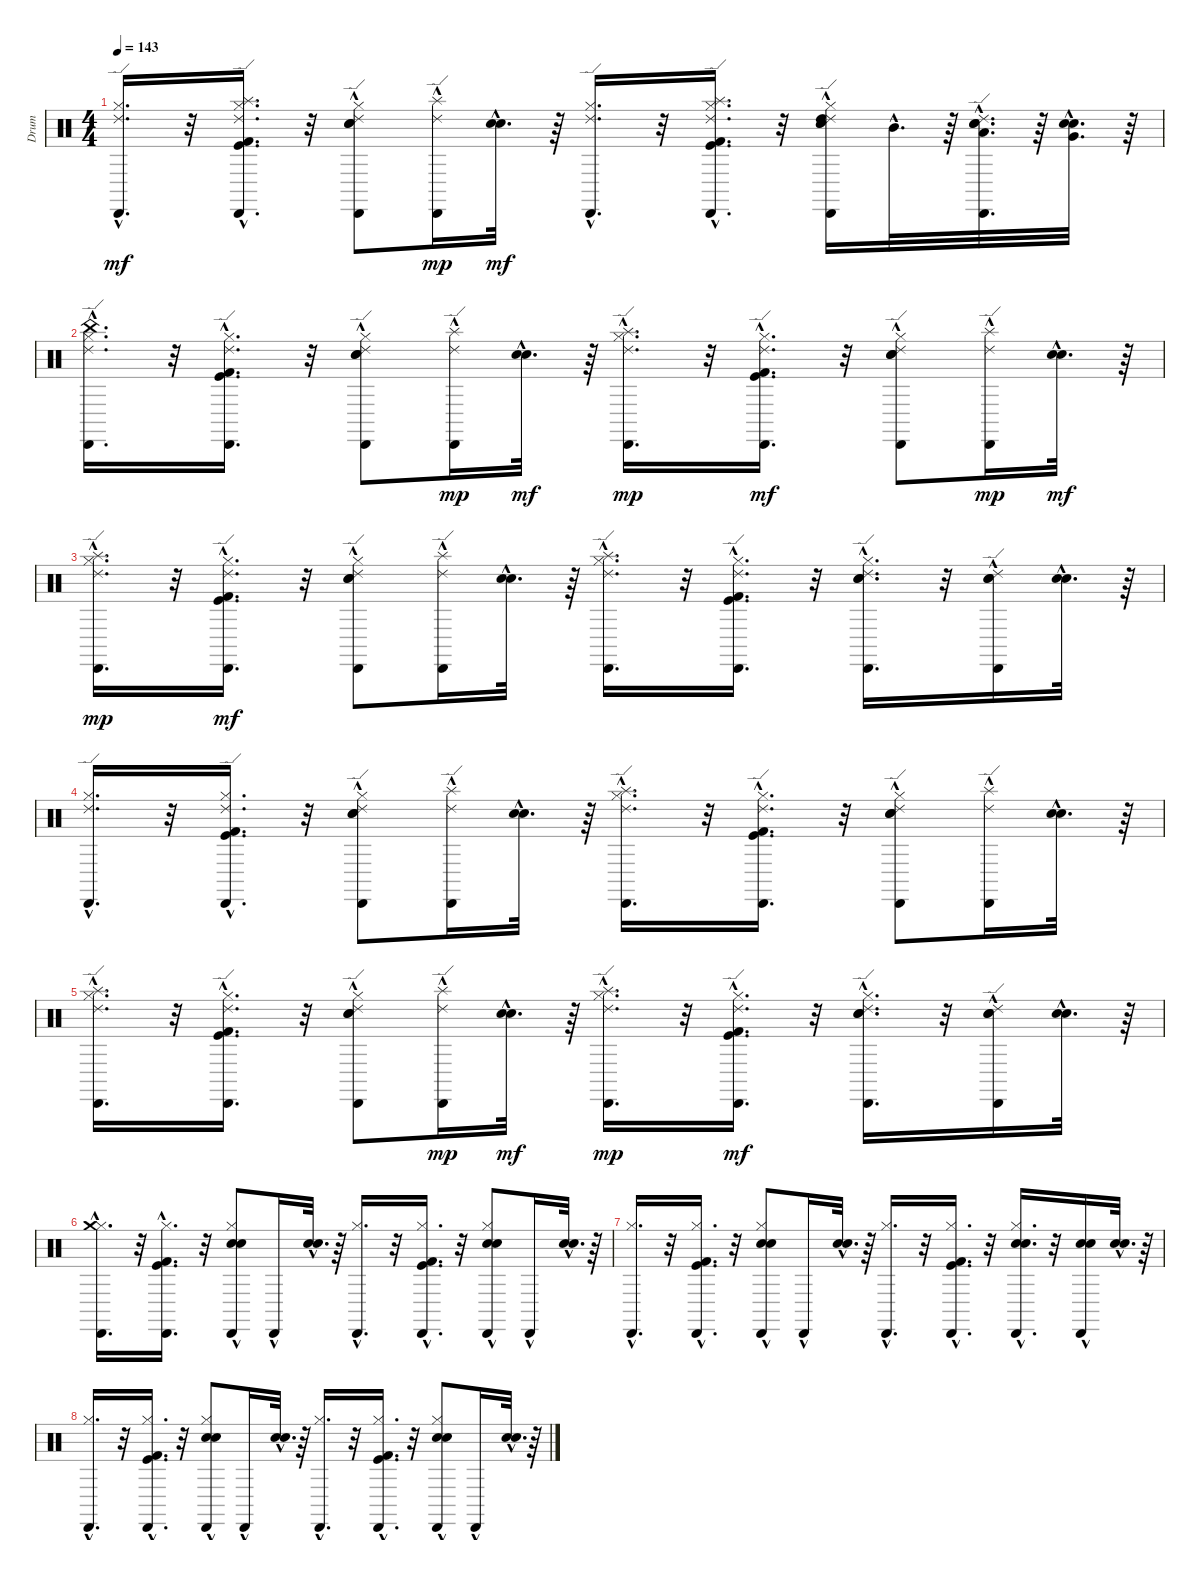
\track ("Drum" "Drum") {instrument percussion}
\staff {score}
\articulation defaults
\ts (4 4)
\tempo 143
\clef neutral
\ks c
("Ride (edge) 2"{hac} "Hi-Hat (closed)"{hac} "Cabasa (hit)"{hac}).16{d dy mf} r.32 ("Ride (edge) 2"{hac} "Kick (hit) 2"{hac} "Kick (hit)"{hac} "Cabasa (hit)"{hac} "Splash (hit)"{hac} "Hi-Hat (closed)"{hac}).16{d} r.32 ("Ride (edge) 2"{hac} "Cabasa (hit)"{hac} "Electric Snare (hit)" "Hi-Hat (closed)" "Snare (hit) 2").8 ("Ride (edge) 2"{hac} "Cabasa (hit)"{hac} "Splash (hit)"{hac}).16{dy mp} ("Snare (hit) 2"{hac} "Electric Snare (hit)"{hac}).32{d dy mf} r.64 ("Ride (edge) 2"{hac} "Cabasa (hit)"{hac} "Hi-Hat (closed)"{hac}).16{d} r.32 ("Ride (edge) 2"{hac} "Kick (hit) 2"{hac} "Kick (hit)"{hac} "Cabasa (hit)"{hac} "Splash (hit)"{hac} "Hi-Hat (closed)"{hac}).16{d} r.32 ("Cabasa (hit)"{hac} "Ride (edge) 2"{hac} "High Tom (hit)"{hac} "Electric Snare (hit)"{hac} "Snare (hit) 2"{hac} "Hi-Hat (closed)"{hac}).16 "Mid Tom (hit)"{hac}.32{d} r.64 ("Cabasa (hit)"{hac} "Ride (edge) 2"{hac} "Low Tom (hit)"{hac} "Electric Snare (hit)"{hac} "Snare (hit) 2"{hac}).32{d} r.64 ("Very Low Tom (hit)"{hac} "Snare (hit) 2"{hac} "Electric Snare (hit)"{hac}).32{d} r.64 |
("Hi-Hat (closed)"{hac} "Cabasa (hit)"{hac} "Ride (edge) 2"{hac} "China (hit)"{hac}).16{d} r.32 ("Hi-Hat (closed)"{hac} "Kick (hit)"{hac} "Cabasa (hit)"{hac} "Kick (hit) 2"{hac} "Ride (edge) 2"{hac}).16{d} r.32 ("Hi-Hat (closed)" "Snare (hit) 2" "Cabasa (hit)"{hac} "Electric Snare (hit)" "Ride (edge) 2"{hac}).8 ("Cabasa (hit)"{hac} "Ride (edge) 2"{hac} "Splash (hit)"{hac}).16{dy mp} ("Snare (hit) 2"{hac} "Electric Snare (hit)"{hac}).32{d dy mf} r.64 ("Hi-Hat (closed)"{hac} "Cabasa (hit)"{hac} "Ride (edge) 2"{hac} "Splash (hit)"{hac}).16{d dy mp} r.32 ("Hi-Hat (closed)"{hac} "Kick (hit)"{hac} "Cabasa (hit)"{hac} "Kick (hit) 2"{hac} "Ride (edge) 2"{hac}).16{d dy mf} r.32 ("Hi-Hat (closed)" "Snare (hit) 2" "Cabasa (hit)"{hac} "Electric Snare (hit)" "Ride (edge) 2"{hac}).8 ("Cabasa (hit)"{hac} "Ride (edge) 2"{hac} "Splash (hit)"{hac}).16{dy mp} ("Snare (hit) 2"{hac} "Electric Snare (hit)"{hac}).32{d dy mf} r.64 |
("Hi-Hat (closed)"{hac} "Ride (edge) 2"{hac} "Cabasa (hit)"{hac} "Splash (hit)"{hac}).16{d dy mp} r.32 ("Kick (hit)"{hac} "Hi-Hat (closed)"{hac} "Kick (hit) 2"{hac} "Ride (edge) 2"{hac} "Cabasa (hit)"{hac}).16{d dy mf} r.32 ("Snare (hit) 2" "Hi-Hat (closed)" "Electric Snare (hit)" "Ride (edge) 2"{hac} "Cabasa (hit)"{hac}).8 ("Splash (hit)"{hac} "Ride (edge) 2"{hac} "Cabasa (hit)"{hac}).16 ("Snare (hit) 2"{hac} "Electric Snare (hit)"{hac}).32{d} r.64 ("Hi-Hat (closed)"{hac} "Splash (hit)"{hac} "Ride (edge) 2"{hac} "Cabasa (hit)"{hac}).16{d} r.32 ("Kick (hit)"{hac} "Hi-Hat (closed)"{hac} "Kick (hit) 2"{hac} "Ride (edge) 2"{hac} "Cabasa (hit)"{hac}).16{d} r.32 ("Snare (hit) 2"{hac} "Hi-Hat (closed)"{hac} "Electric Snare (hit)"{hac} "Ride (edge) 2"{hac} "Cabasa (hit)"{hac}).16{d} r.32 ("Snare (hit) 2"{hac} "Electric Snare (hit)"{hac} "Ride (edge) 2"{hac} "Cabasa (hit)"{hac}).16 ("Snare (hit) 2"{hac} "Electric Snare (hit)"{hac}).32{d} r.64 |
("Hi-Hat (closed)"{hac} "Ride (edge) 2"{hac} "Cabasa (hit)"{hac}).16{d} r.32 ("Hi-Hat (closed)"{hac} "Kick (hit)"{hac} "Kick (hit) 2"{hac} "Ride (edge) 2"{hac} "Cabasa (hit)"{hac}).16{d} r.32 ("Hi-Hat (closed)" "Snare (hit) 2" "Electric Snare (hit)" "Ride (edge) 2"{hac} "Cabasa (hit)"{hac}).8 ("Splash (hit)"{hac} "Ride (edge) 2"{hac} "Cabasa (hit)"{hac}).16 ("Snare (hit) 2"{hac} "Electric Snare (hit)"{hac}).32{d} r.64 ("Hi-Hat (closed)"{hac} "Splash (hit)"{hac} "Ride (edge) 2"{hac} "Cabasa (hit)"{hac}).16{d} r.32 ("Hi-Hat (closed)"{hac} "Kick (hit)"{hac} "Kick (hit) 2"{hac} "Ride (edge) 2"{hac} "Cabasa (hit)"{hac}).16{d} r.32 ("Hi-Hat (closed)" "Snare (hit) 2" "Electric Snare (hit)" "Ride (edge) 2"{hac} "Cabasa (hit)"{hac}).8 ("Splash (hit)"{hac} "Ride (edge) 2"{hac} "Cabasa (hit)"{hac}).16 ("Snare (hit) 2"{hac} "Electric Snare (hit)"{hac}).32{d} r.64 |
("Hi-Hat (closed)"{hac} "Splash (hit)"{hac} "Cabasa (hit)"{hac} "Ride (edge) 2"{hac}).16{d} r.32 ("Hi-Hat (closed)"{hac} "Kick (hit)"{hac} "Kick (hit) 2"{hac} "Cabasa (hit)"{hac} "Ride (edge) 2"{hac}).16{d} r.32 ("Hi-Hat (closed)" "Snare (hit) 2" "Electric Snare (hit)" "Cabasa (hit)"{hac} "Ride (edge) 2"{hac}).8 ("Cabasa (hit)"{hac} "Ride (edge) 2"{hac} "Splash (hit)"{hac}).16{dy mp} ("Snare (hit) 2"{hac} "Electric Snare (hit)"{hac}).32{d dy mf} r.64 ("Hi-Hat (closed)"{hac} "Cabasa (hit)"{hac} "Ride (edge) 2"{hac} "Splash (hit)"{hac}).16{d dy mp} r.32 ("Hi-Hat (closed)"{hac} "Kick (hit)"{hac} "Kick (hit) 2"{hac} "Cabasa (hit)"{hac} "Ride (edge) 2"{hac}).16{d dy mf} r.32 ("Hi-Hat (closed)"{hac} "Snare (hit) 2"{hac} "Electric Snare (hit)"{hac} "Cabasa (hit)"{hac} "Ride (edge) 2"{hac}).16{d} r.32 ("Snare (hit) 2"{hac} "Electric Snare (hit)"{hac} "Cabasa (hit)"{hac} "Ride (edge) 2"{hac}).16 ("Snare (hit) 2"{hac} "Electric Snare (hit)"{hac}).32{d} r.64 |
("Cabasa (hit)"{hac} "Hi-Hat (closed)"{hac} "Crash medium (hit)"{hac}).16{d} r.32 ("Kick (hit) 2"{hac} "Cabasa (hit)"{hac} "Kick (hit)"{hac} "Hi-Hat (closed)"{hac}).16{d} r.32 ("Electric Snare (hit)" "Cabasa (hit)"{hac} "Snare (hit) 2" "Hi-Hat (closed)").8 "Cabasa (hit)"{hac}.16 ("Electric Snare (hit)"{hac} "Snare (hit) 2"{hac}).32{d} r.64 ("Cabasa (hit)"{hac} "Hi-Hat (closed)"{hac}).16{d} r.32 ("Kick (hit) 2"{hac} "Cabasa (hit)"{hac} "Kick (hit)"{hac} "Hi-Hat (closed)"{hac}).16{d} r.32 ("Electric Snare (hit)" "Cabasa (hit)"{hac} "Snare (hit) 2" "Hi-Hat (closed)").8 "Cabasa (hit)"{hac}.16 ("Electric Snare (hit)"{hac} "Snare (hit) 2"{hac}).32{d} r.64 |
("Cabasa (hit)"{hac} "Hi-Hat (closed)"{hac}).16{d} r.32 ("Kick (hit) 2"{hac} "Cabasa (hit)"{hac} "Hi-Hat (closed)"{hac} "Kick (hit)"{hac}).16{d} r.32 ("Electric Snare (hit)" "Cabasa (hit)"{hac} "Hi-Hat (closed)" "Snare (hit) 2").8 "Cabasa (hit)"{hac}.16 ("Electric Snare (hit)"{hac} "Snare (hit) 2"{hac}).32{d} r.64 ("Cabasa (hit)"{hac} "Hi-Hat (closed)"{hac}).16{d} r.32 ("Kick (hit) 2"{hac} "Cabasa (hit)"{hac} "Hi-Hat (closed)"{hac} "Kick (hit)"{hac}).16{d} r.32 ("Electric Snare (hit)"{hac} "Cabasa (hit)"{hac} "Hi-Hat (closed)"{hac} "Snare (hit) 2"{hac}).16{d} r.32 ("Electric Snare (hit)"{hac} "Cabasa (hit)"{hac} "Snare (hit) 2"{hac}).16 ("Electric Snare (hit)"{hac} "Snare (hit) 2"{hac}).32{d} r.64 |
("Cabasa (hit)"{hac} "Hi-Hat (closed)"{hac}).16{d} r.32 ("Kick (hit) 2"{hac} "Cabasa (hit)"{hac} "Kick (hit)"{hac} "Hi-Hat (closed)"{hac}).16{d} r.32 ("Electric Snare (hit)" "Cabasa (hit)"{hac} "Snare (hit) 2" "Hi-Hat (closed)").8 "Cabasa (hit)"{hac}.16 ("Electric Snare (hit)"{hac} "Snare (hit) 2"{hac}).32{d} r.64 ("Cabasa (hit)"{hac} "Hi-Hat (closed)"{hac}).16{d} r.32 ("Kick (hit) 2"{hac} "Cabasa (hit)"{hac} "Kick (hit)"{hac} "Hi-Hat (closed)"{hac}).16{d} r.32 ("Electric Snare (hit)" "Cabasa (hit)"{hac} "Snare (hit) 2" "Hi-Hat (closed)").8 "Cabasa (hit)"{hac}.16 ("Electric Snare (hit)"{hac} "Snare (hit) 2"{hac}).32{d} r.64
